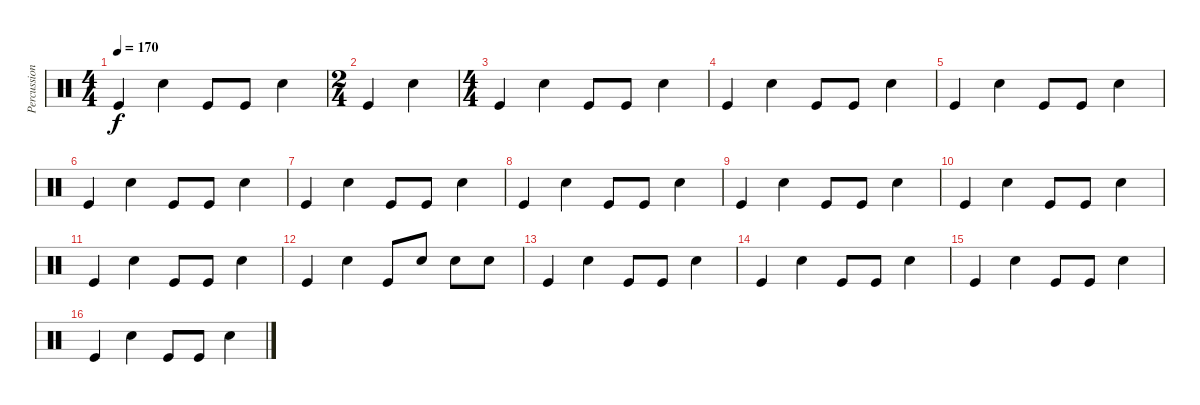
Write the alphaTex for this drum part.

\track ("Percussion" "Percussion") {instrument percussion}
\staff {score}
\articulation defaults
\ts (4 4)
\tempo 170
\clef neutral
\ks c "Kick (hit)".4{dy f} "Snare (hit) 2".4 "Kick (hit)".8 "Kick (hit)".8 "Snare (hit) 2".4
|
\ts (2 4)
"Kick (hit)".4 "Snare (hit) 2".4 |
\ts (4 4)
"Kick (hit)".4 "Snare (hit) 2".4 "Kick (hit)".8 "Kick (hit)".8 "Snare (hit) 2".4 |
"Kick (hit)".4 "Snare (hit) 2".4 "Kick (hit)".8 "Kick (hit)".8 "Snare (hit) 2".4 |
"Kick (hit)".4 "Snare (hit) 2".4 "Kick (hit)".8 "Kick (hit)".8 "Snare (hit) 2".4 |
"Kick (hit)".4 "Snare (hit) 2".4 "Kick (hit)".8 "Kick (hit)".8 "Snare (hit) 2".4 |
"Kick (hit)".4 "Snare (hit) 2".4 "Kick (hit)".8 "Kick (hit)".8 "Snare (hit) 2".4 |
"Kick (hit)".4 "Snare (hit) 2".4 "Kick (hit)".8 "Kick (hit)".8 "Snare (hit) 2".4 |
"Kick (hit)".4 "Snare (hit) 2".4 "Kick (hit)".8 "Kick (hit)".8 "Snare (hit) 2".4 |
"Kick (hit)".4 "Snare (hit) 2".4 "Kick (hit)".8 "Kick (hit)".8 "Snare (hit) 2".4 |
"Kick (hit)".4 "Snare (hit) 2".4 "Kick (hit)".8 "Kick (hit)".8 "Snare (hit) 2".4 |
"Kick (hit)".4 "Snare (hit) 2".4 "Kick (hit)".8 "Snare (hit) 2".8 "Snare (hit) 2".8 "Snare (hit) 2".8 |
"Kick (hit)".4 "Snare (hit) 2".4 "Kick (hit)".8 "Kick (hit)".8 "Snare (hit) 2".4 |
"Kick (hit)".4 "Snare (hit) 2".4 "Kick (hit)".8 "Kick (hit)".8 "Snare (hit) 2".4 |
"Kick (hit)".4 "Snare (hit) 2".4 "Kick (hit)".8 "Kick (hit)".8 "Snare (hit) 2".4 |
"Kick (hit)".4 "Snare (hit) 2".4 "Kick (hit)".8 "Kick (hit)".8 "Snare (hit) 2".4
